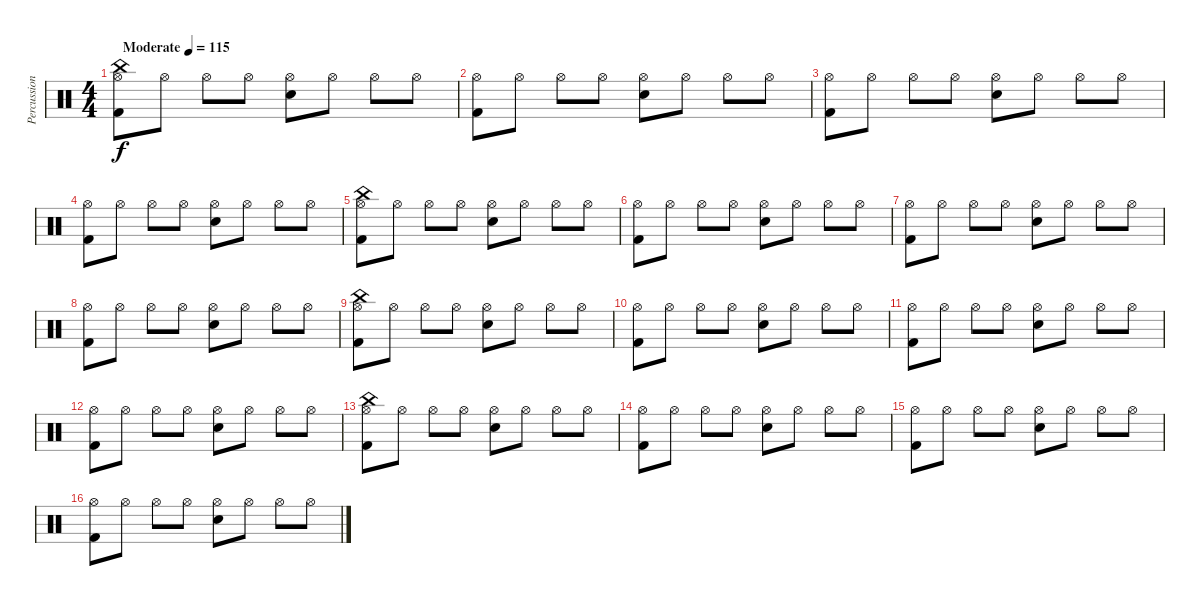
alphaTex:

\track ("Percussion" "Percussion") {instrument percussion}
\staff {score}
\articulation defaults
\ts (4 4)
\tempo (115 "Moderate")
\clef neutral
\ks c
("China (hit)" "Hi-Hat (open)" "Kick (hit) 2").8{dy f} "Hi-Hat (open)".8 "Hi-Hat (open)".8 "Hi-Hat (open)".8 ("Hi-Hat (open)" "Snare (hit) 2").8 "Hi-Hat (open)".8 "Hi-Hat (open)".8 "Hi-Hat (open)".8 |
("Hi-Hat (open)" "Kick (hit) 2").8 "Hi-Hat (open)".8 "Hi-Hat (open)".8 "Hi-Hat (open)".8 ("Hi-Hat (open)" "Snare (hit) 2").8 "Hi-Hat (open)".8 "Hi-Hat (open)".8 "Hi-Hat (open)".8 |
("Hi-Hat (open)" "Kick (hit) 2").8 "Hi-Hat (open)".8 "Hi-Hat (open)".8 "Hi-Hat (open)".8 ("Hi-Hat (open)" "Snare (hit) 2").8 "Hi-Hat (open)".8 "Hi-Hat (open)".8 "Hi-Hat (open)".8 |
("Hi-Hat (open)" "Kick (hit) 2").8 "Hi-Hat (open)".8 "Hi-Hat (open)".8 "Hi-Hat (open)".8 ("Hi-Hat (open)" "Snare (hit) 2").8 "Hi-Hat (open)".8 "Hi-Hat (open)".8 "Hi-Hat (open)".8 |
("China (hit)" "Hi-Hat (open)" "Kick (hit) 2").8 "Hi-Hat (open)".8 "Hi-Hat (open)".8 "Hi-Hat (open)".8 ("Hi-Hat (open)" "Snare (hit) 2").8 "Hi-Hat (open)".8 "Hi-Hat (open)".8 "Hi-Hat (open)".8 |
("Hi-Hat (open)" "Kick (hit) 2").8 "Hi-Hat (open)".8 "Hi-Hat (open)".8 "Hi-Hat (open)".8 ("Hi-Hat (open)" "Snare (hit) 2").8 "Hi-Hat (open)".8 "Hi-Hat (open)".8 "Hi-Hat (open)".8 |
("Hi-Hat (open)" "Kick (hit) 2").8 "Hi-Hat (open)".8 "Hi-Hat (open)".8 "Hi-Hat (open)".8 ("Hi-Hat (open)" "Snare (hit) 2").8 "Hi-Hat (open)".8 "Hi-Hat (open)".8 "Hi-Hat (open)".8 |
("Hi-Hat (open)" "Kick (hit) 2").8 "Hi-Hat (open)".8 "Hi-Hat (open)".8 "Hi-Hat (open)".8 ("Hi-Hat (open)" "Snare (hit) 2").8 "Hi-Hat (open)".8 "Hi-Hat (open)".8 "Hi-Hat (open)".8 |
("China (hit)" "Hi-Hat (open)" "Kick (hit) 2").8 "Hi-Hat (open)".8 "Hi-Hat (open)".8 "Hi-Hat (open)".8 ("Hi-Hat (open)" "Snare (hit) 2").8 "Hi-Hat (open)".8 "Hi-Hat (open)".8 "Hi-Hat (open)".8 |
("Hi-Hat (open)" "Kick (hit) 2").8 "Hi-Hat (open)".8 "Hi-Hat (open)".8 "Hi-Hat (open)".8 ("Hi-Hat (open)" "Snare (hit) 2").8 "Hi-Hat (open)".8 "Hi-Hat (open)".8 "Hi-Hat (open)".8 |
("Hi-Hat (open)" "Kick (hit) 2").8 "Hi-Hat (open)".8 "Hi-Hat (open)".8 "Hi-Hat (open)".8 ("Hi-Hat (open)" "Snare (hit) 2").8 "Hi-Hat (open)".8 "Hi-Hat (open)".8 "Hi-Hat (open)".8 |
("Hi-Hat (open)" "Kick (hit) 2").8 "Hi-Hat (open)".8 "Hi-Hat (open)".8 "Hi-Hat (open)".8 ("Hi-Hat (open)" "Snare (hit) 2").8 "Hi-Hat (open)".8 "Hi-Hat (open)".8 "Hi-Hat (open)".8 |
("China (hit)" "Hi-Hat (open)" "Kick (hit) 2").8 "Hi-Hat (open)".8 "Hi-Hat (open)".8 "Hi-Hat (open)".8 ("Hi-Hat (open)" "Snare (hit) 2").8 "Hi-Hat (open)".8 "Hi-Hat (open)".8 "Hi-Hat (open)".8 |
("Hi-Hat (open)" "Kick (hit) 2").8 "Hi-Hat (open)".8 "Hi-Hat (open)".8 "Hi-Hat (open)".8 ("Hi-Hat (open)" "Snare (hit) 2").8 "Hi-Hat (open)".8 "Hi-Hat (open)".8 "Hi-Hat (open)".8 |
("Hi-Hat (open)" "Kick (hit) 2").8 "Hi-Hat (open)".8 "Hi-Hat (open)".8 "Hi-Hat (open)".8 ("Hi-Hat (open)" "Snare (hit) 2").8 "Hi-Hat (open)".8 "Hi-Hat (open)".8 "Hi-Hat (open)".8 |
("Hi-Hat (open)" "Kick (hit) 2").8 "Hi-Hat (open)".8 "Hi-Hat (open)".8 "Hi-Hat (open)".8 ("Hi-Hat (open)" "Snare (hit) 2").8 "Hi-Hat (open)".8 "Hi-Hat (open)".8 "Hi-Hat (open)".8
